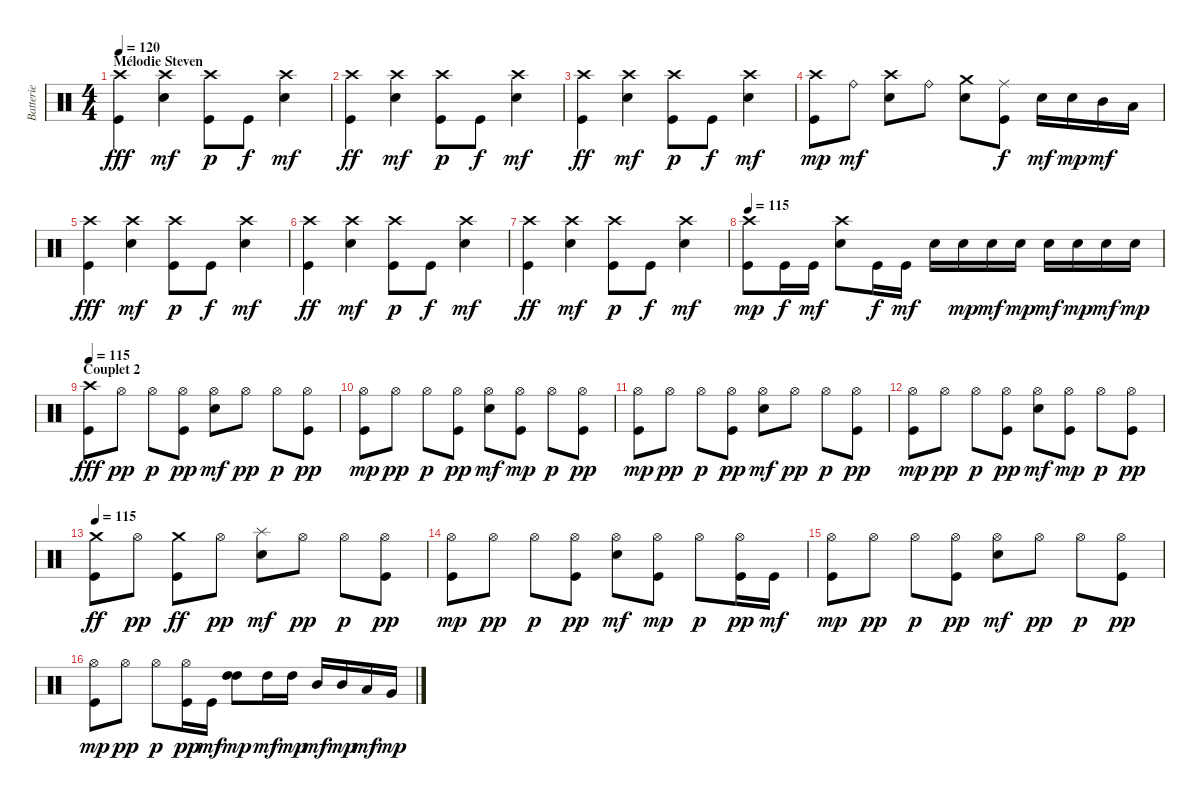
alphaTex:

\track ("Batterie" "Batterie") {instrument percussion}
\staff {score}
\articulation defaults
\ts (4 4)
\section ("" "Mélodie Steven")
\tempo 120
\clef neutral
\ks c
("Crash high (hit)" "Kick (hit)").4{dy fff} ("Crash high (hit)" "Electric Snare (hit)").4{dy mf} ("Crash high (hit)" "Kick (hit)").8{dy p} "Kick (hit)".8{dy f} ("Crash high (hit)" "Electric Snare (hit)").4{dy mf} |
("Crash high (hit)" "Kick (hit)").4{dy ff} ("Crash high (hit)" "Electric Snare (hit)").4{dy mf} ("Crash high (hit)" "Kick (hit)").8{dy p} "Kick (hit)".8{dy f} ("Crash high (hit)" "Electric Snare (hit)").4{dy mf} |
("Crash high (hit)" "Kick (hit)").4{dy ff} ("Crash high (hit)" "Electric Snare (hit)").4{dy mf} ("Crash high (hit)" "Kick (hit)").8{dy p} "Kick (hit)".8{dy f} ("Crash high (hit)" "Electric Snare (hit)").4{dy mf} |
("Crash high (hit)" "Kick (hit)").8{dy mp} "Ride (bell)".8{dy mf} ("Crash high (hit)" "Electric Snare (hit)").8 "Ride (bell)".8 ("Crash medium (hit)" "Electric Snare (hit)").8 ("Ride (middle)" "Kick (hit)").8{dy f} "Electric Snare (hit)".16{dy mf} "Electric Snare (hit)".16{dy mp} "Mid Tom (hit)".16{dy mf} "Low Tom (hit)".16 |
("Crash high (hit)" "Kick (hit)").4{dy fff} ("Crash high (hit)" "Electric Snare (hit)").4{dy mf} ("Crash high (hit)" "Kick (hit)").8{dy p} "Kick (hit)".8{dy f} ("Crash high (hit)" "Electric Snare (hit)").4{dy mf} |
("Crash high (hit)" "Kick (hit)").4{dy ff} ("Crash high (hit)" "Electric Snare (hit)").4{dy mf} ("Crash high (hit)" "Kick (hit)").8{dy p} "Kick (hit)".8{dy f} ("Crash high (hit)" "Electric Snare (hit)").4{dy mf} |
("Crash high (hit)" "Kick (hit)").4{dy ff} ("Crash high (hit)" "Electric Snare (hit)").4{dy mf} ("Crash high (hit)" "Kick (hit)").8{dy p} "Kick (hit)".8{dy f} ("Crash high (hit)" "Electric Snare (hit)").4{dy mf} |
\tempo 115
("Crash high (hit)" "Kick (hit)").8{dy mp} "Kick (hit)".16{dy f} "Kick (hit)".16{dy mf} ("Crash high (hit)" "Electric Snare (hit)").8 "Kick (hit)".16{dy f} "Kick (hit)".16{dy mf} "Electric Snare (hit)".16 "Electric Snare (hit)".16{dy mp} "Electric Snare (hit)".16{dy mf} "Electric Snare (hit)".16{dy mp} "Electric Snare (hit)".16{dy mf} "Electric Snare (hit)".16{dy mp} "Electric Snare (hit)".16{dy mf} "Electric Snare (hit)".16{dy mp} |
\section ("" "Couplet 2")
\tempo 115
("Crash high (hit)" "Kick (hit)").8{dy fff} "Hi-Hat (open)".8{dy pp} "Hi-Hat (open)".8{dy p} ("Hi-Hat (open)" "Kick (hit)").8{dy pp} ("Hi-Hat (open)" "Electric Snare (hit)").8{dy mf} "Hi-Hat (open)".8{dy pp} "Hi-Hat (open)".8{dy p} ("Hi-Hat (open)" "Kick (hit)").8{dy pp} |
("Hi-Hat (open)" "Kick (hit)").8{dy mp} "Hi-Hat (open)".8{dy pp} "Hi-Hat (open)".8{dy p} ("Hi-Hat (open)" "Kick (hit)").8{dy pp} ("Hi-Hat (open)" "Electric Snare (hit)").8{dy mf} ("Hi-Hat (open)" "Kick (hit)").8{dy mp} "Hi-Hat (open)".8{dy p} ("Hi-Hat (open)" "Kick (hit)").8{dy pp} |
("Hi-Hat (open)" "Kick (hit)").8{dy mp} "Hi-Hat (open)".8{dy pp} "Hi-Hat (open)".8{dy p} ("Hi-Hat (open)" "Kick (hit)").8{dy pp} ("Hi-Hat (open)" "Electric Snare (hit)").8{dy mf} "Hi-Hat (open)".8{dy pp} "Hi-Hat (open)".8{dy p} ("Hi-Hat (open)" "Kick (hit)").8{dy pp} |
("Hi-Hat (open)" "Kick (hit)").8{dy mp} "Hi-Hat (open)".8{dy pp} "Hi-Hat (open)".8{dy p} ("Hi-Hat (open)" "Kick (hit)").8{dy pp} ("Hi-Hat (open)" "Electric Snare (hit)").8{dy mf} ("Hi-Hat (open)" "Kick (hit)").8{dy mp} "Hi-Hat (open)".8{dy p} ("Hi-Hat (open)" "Kick (hit)").8{dy pp} |
\tempo 115
("Crash medium (hit)" "Kick (hit)").8{dy ff} "Hi-Hat (open)".8{dy pp} ("Crash medium (hit)" "Kick (hit)").8{dy ff} "Hi-Hat (open)".8{dy pp} ("Splash (hit)" "Electric Snare (hit)").8{dy mf} "Hi-Hat (open)".8{dy pp} "Hi-Hat (open)".8{dy p} ("Hi-Hat (open)" "Kick (hit)").8{dy pp} |
("Hi-Hat (open)" "Kick (hit)").8{dy mp} "Hi-Hat (open)".8{dy pp} "Hi-Hat (open)".8{dy p} ("Hi-Hat (open)" "Kick (hit)").8{dy pp} ("Hi-Hat (open)" "Electric Snare (hit)").8{dy mf} ("Hi-Hat (open)" "Kick (hit)").8{dy mp} "Hi-Hat (open)".8{dy p} ("Hi-Hat (open)" "Kick (hit)").16{dy pp} "Kick (hit)".16{dy mf} |
("Hi-Hat (open)" "Kick (hit)").8{dy mp} "Hi-Hat (open)".8{dy pp} "Hi-Hat (open)".8{dy p} ("Hi-Hat (open)" "Kick (hit)").8{dy pp} ("Hi-Hat (open)" "Electric Snare (hit)").8{dy mf} "Hi-Hat (open)".8{dy pp} "Hi-Hat (open)".8{dy p} ("Hi-Hat (open)" "Kick (hit)").8{dy pp} |
("Hi-Hat (open)" "Kick (hit)").8{dy mp} "Hi-Hat (open)".8{dy pp} "Hi-Hat (open)".8{dy p} ("Hi-Hat (open)" "Kick (hit)").16{dy pp} "Kick (hit)".16{dy mf} ("High Tom (hit)" "High Tom (hit)").8{bd 120 dy mp} "High Tom (hit)".16{dy mf} "High Tom (hit)".16{dy mp} "Mid Tom (hit)".16{dy mf} "Mid Tom (hit)".16{dy mp} "Low Tom (hit)".16{dy mf} "Very Low Tom (hit)".16{dy mp}
